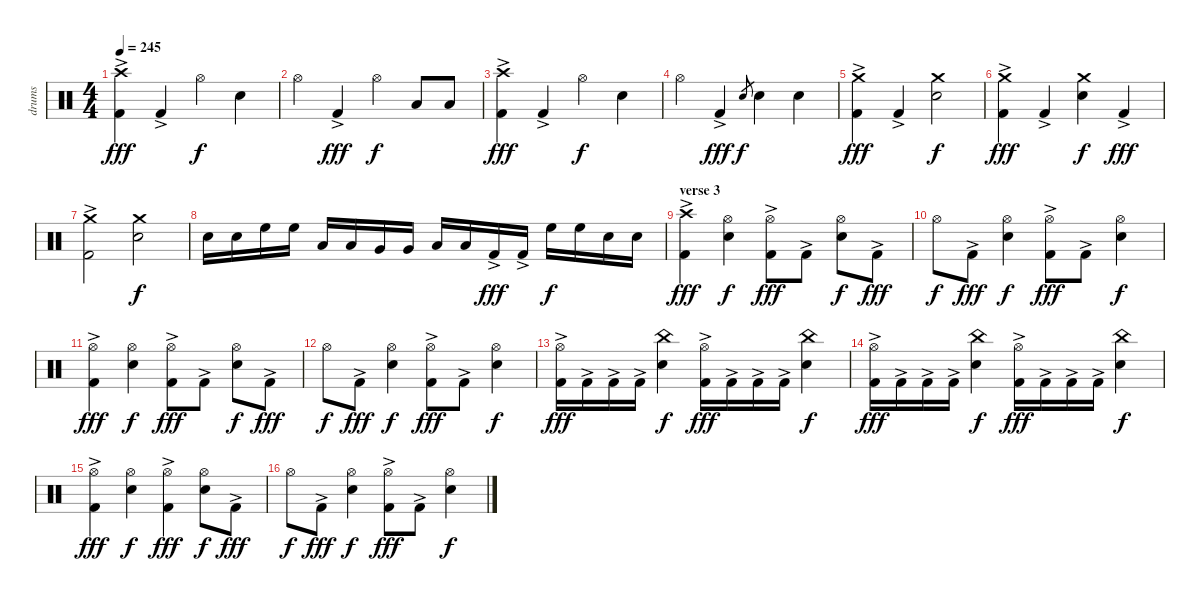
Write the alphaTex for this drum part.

\track ("drums" "drums") {instrument percussion}
\staff {score}
\articulation defaults
\ts (4 4)
\tempo 245
\clef neutral
\ks c
("Crash high (hit)" "Kick (hit) 2"{ac}).4{dy fff} "Kick (hit) 2"{ac}.4 "Hi-Hat (open)".4{dy f} "Electric Snare (hit)".4 |
"Hi-Hat (open)".4 "Kick (hit) 2"{ac}.4{dy fff} "Hi-Hat (open)".4{dy f} "Low Tom (hit)".8 "Low Tom (hit)".8 |
("Crash high (hit)" "Kick (hit) 2"{ac}).4{dy fff} "Kick (hit) 2"{ac}.4 "Hi-Hat (open)".4{dy f} "Electric Snare (hit)".4 |
"Hi-Hat (open)".4 "Kick (hit) 2"{ac}.4{dy fff} "Electric Snare (hit)".8{gr dy f} "Electric Snare (hit)".4 "Electric Snare (hit)".4 |
("Crash medium (hit)" "Kick (hit) 2"{ac}).4{dy fff} "Kick (hit) 2"{ac}.4 ("Crash medium (hit)" "Electric Snare (hit)").2{dy f} |
("Crash medium (hit)" "Kick (hit) 2"{ac}).4{dy fff} "Kick (hit) 2"{ac}.4 ("Crash medium (hit)" "Electric Snare (hit)").4{dy f} "Kick (hit) 2"{ac}.4{dy fff} |
("Crash medium (hit)" "Kick (hit) 2"{ac}).2 ("Crash medium (hit)" "Electric Snare (hit)").2{dy f} |
"Electric Snare (hit)".16 "Electric Snare (hit)".16 "High Floor Tom (hit)".16 "High Floor Tom (hit)".16 "Low Tom (hit)".16 "Low Tom (hit)".16 "Very Low Tom (hit)".16 "Very Low Tom (hit)".16 "Low Floor Tom (hit)".16 "Low Floor Tom (hit)".16 "Kick (hit) 2"{ac}.16{dy fff} "Kick (hit) 2"{ac}.16 "High Floor Tom (hit)".16{dy f} "High Floor Tom (hit)".16 "Electric Snare (hit)".16 "Electric Snare (hit)".16 |
\section ("" "verse 3")
("Crash high (hit)" "Kick (hit) 2"{ac}).4{dy fff} ("Hi-Hat (open)" "Electric Snare (hit)").4{dy f} ("Hi-Hat (open)" "Kick (hit) 2"{ac}).8{dy fff} "Kick (hit) 2"{ac}.8 ("Hi-Hat (open)" "Electric Snare (hit)").8{dy f} "Kick (hit) 2"{ac}.8{dy fff} |
"Hi-Hat (open)".8{dy f} "Kick (hit) 2"{ac}.8{dy fff} ("Hi-Hat (open)" "Electric Snare (hit)").4{dy f} ("Hi-Hat (open)" "Kick (hit) 2"{ac}).8{dy fff} "Kick (hit) 2"{ac}.8 ("Hi-Hat (open)" "Electric Snare (hit)").4{dy f} |
("Hi-Hat (open)" "Kick (hit) 2"{ac}).4{dy fff} ("Hi-Hat (open)" "Electric Snare (hit)").4{dy f} ("Hi-Hat (open)" "Kick (hit) 2"{ac}).8{dy fff} "Kick (hit) 2"{ac}.8 ("Hi-Hat (open)" "Electric Snare (hit)").8{dy f} "Kick (hit) 2"{ac}.8{dy fff} |
"Hi-Hat (open)".8{dy f} "Kick (hit) 2"{ac}.8{dy fff} ("Hi-Hat (open)" "Electric Snare (hit)").4{dy f} ("Hi-Hat (open)" "Kick (hit) 2"{ac}).8{dy fff} "Kick (hit) 2"{ac}.8 ("Hi-Hat (open)" "Electric Snare (hit)").4{dy f} |
("Hi-Hat (open)" "Kick (hit) 2"{ac}).16{dy fff} "Kick (hit) 2"{ac}.16 "Kick (hit) 2"{ac}.16 "Kick (hit) 2"{ac}.16 ("China (hit)" "Electric Snare (hit)").4{dy f} ("Hi-Hat (open)" "Kick (hit) 2"{ac}).16{dy fff} "Kick (hit) 2"{ac}.16 "Kick (hit) 2"{ac}.16 "Kick (hit) 2"{ac}.16 ("China (hit)" "Electric Snare (hit)").4{dy f} |
("Hi-Hat (open)" "Kick (hit) 2"{ac}).16{dy fff} "Kick (hit) 2"{ac}.16 "Kick (hit) 2"{ac}.16 "Kick (hit) 2"{ac}.16 ("China (hit)" "Electric Snare (hit)").4{dy f} ("Hi-Hat (open)" "Kick (hit) 2"{ac}).16{dy fff} "Kick (hit) 2"{ac}.16 "Kick (hit) 2"{ac}.16 "Kick (hit) 2"{ac}.16 ("China (hit)" "Electric Snare (hit)").4{dy f} |
("Hi-Hat (open)" "Kick (hit) 2"{ac}).4{dy fff} ("Hi-Hat (open)" "Electric Snare (hit)").4{dy f} ("Hi-Hat (open)" "Kick (hit) 2"{ac}).4{dy fff} ("Hi-Hat (open)" "Electric Snare (hit)").8{dy f} "Kick (hit) 2"{ac}.8{dy fff} |
"Hi-Hat (open)".8{dy f} "Kick (hit) 2"{ac}.8{dy fff} ("Hi-Hat (open)" "Electric Snare (hit)").4{dy f} ("Hi-Hat (open)" "Kick (hit) 2"{ac}).8{dy fff} "Kick (hit) 2"{ac}.8 ("Hi-Hat (open)" "Electric Snare (hit)").4{dy f}
